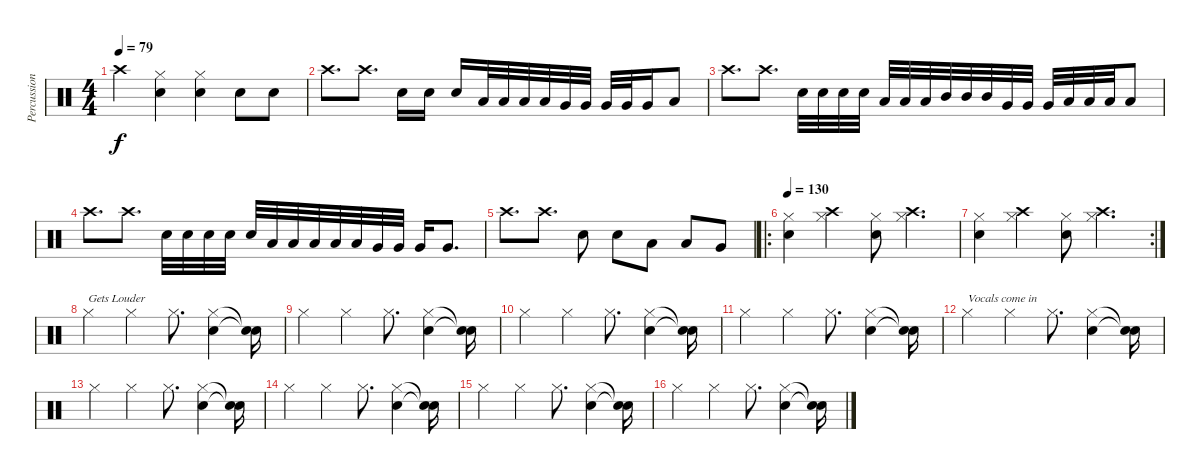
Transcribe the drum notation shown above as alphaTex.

\track ("Percussion" "Percussion") {instrument percussion}
\staff {score}
\articulation defaults
\ts (4 4)
\tempo 79
\clef neutral
\ks c "Crash high (hit)".4{dy f}
("Snare (hit) 2" "Hi-Hat (closed)").4 ("Snare (hit) 2" "Hi-Hat (closed)").4 "Snare (hit) 2".8 "Snare (hit) 2".8 |
"Crash high (hit)".8{d} "Crash high (hit)".8{d} "Snare (hit) 2".16 "Snare (hit) 2".16 "Snare (hit) 2".16 "Low Tom (hit)".32 "Low Tom (hit)".32 "Low Tom (hit)".32 "Low Tom (hit)".32 "Very Low Tom (hit)".32 "Very Low Tom (hit)".32 "Very Low Tom (hit)".32 "Very Low Tom (hit)".32 "Very Low Tom (hit)".16 "Low Floor Tom (hit)".8 |
"Crash high (hit)".8{d} "Crash high (hit)".8{d} "Snare (hit) 2".32 "Snare (hit) 2".32 "Snare (hit) 2".32 "Snare (hit) 2".32 "Low Tom (hit)".32 "Low Tom (hit)".32 "Low Tom (hit)".32 "Mid Tom (hit)".32 "Mid Tom (hit)".32 "Mid Tom (hit)".32 "Very Low Tom (hit)".32 "Very Low Tom (hit)".32 "Very Low Tom (hit)".32 "Low Tom (hit)".32 "Low Tom (hit)".32 "Low Floor Tom (hit)".32 "Low Floor Tom (hit)".8 |
"Crash high (hit)".8{d} "Crash high (hit)".8{d} "Snare (hit) 2".32 "Snare (hit) 2".32 "Snare (hit) 2".32 "Snare (hit) 2".32 "Snare (hit) 2".32 "Low Tom (hit)".32 "Low Tom (hit)".32 "Low Tom (hit)".32 "Low Tom (hit)".32 "Low Tom (hit)".32 "Very Low Tom (hit)".32 "Very Low Tom (hit)".32 "Very Low Tom (hit)".16 "Very Low Tom (hit)".8{d} |
"Crash high (hit)".8{d} "Crash high (hit)".8{d} "Snare (hit) 2".8 "Snare (hit) 2".8 "Low Tom (hit)".8 "Low Tom (hit)".8 "Very Low Tom (hit)".8 |
\ro
\tempo 130
("Snare (hit) 2" "Hi-Hat (closed)").4{volume 13} ("Crash high (hit)" "Hi-Hat (closed)").4 ("Snare (hit) 2" "Hi-Hat (closed)").8 ("Crash high (hit)" "Hi-Hat (closed)").4{d} |
\rc 2
("Snare (hit) 2" "Hi-Hat (closed)").4 ("Crash high (hit)" "Hi-Hat (closed)").4 ("Snare (hit) 2" "Hi-Hat (closed)").8 ("Crash high (hit)" "Hi-Hat (closed)").4{d} |
"Hi-Hat (closed)".4{txt "Gets Louder" volume 13} "Hi-Hat (closed)".4 "Hi-Hat (closed)".8{d} ("Hi-Hat (closed)" "Snare (hit) 2").4 ("Snare (hit)"{t} "Snare (hit)"{t}).16 |
"Hi-Hat (closed)".4 "Hi-Hat (closed)".4 "Hi-Hat (closed)".8{d} ("Hi-Hat (closed)" "Snare (hit) 2").4 ("Snare (hit)"{t} "Snare (hit)"{t}).16 |
"Hi-Hat (closed)".4 "Hi-Hat (closed)".4 "Hi-Hat (closed)".8{d} ("Hi-Hat (closed)" "Snare (hit) 2").4 ("Snare (hit)"{t} "Snare (hit)"{t}).16 |
"Hi-Hat (closed)".4 "Hi-Hat (closed)".4 "Hi-Hat (closed)".8{d} ("Hi-Hat (closed)" "Snare (hit) 2").4 ("Snare (hit)"{t} "Snare (hit)"{t}).16 |
"Hi-Hat (closed)".4{txt "Vocals come in"} "Hi-Hat (closed)".4 "Hi-Hat (closed)".8{d} ("Hi-Hat (closed)" "Snare (hit) 2").4 ("Snare (hit)"{t} "Snare (hit)"{t}).16 |
"Hi-Hat (closed)".4 "Hi-Hat (closed)".4 "Hi-Hat (closed)".8{d} ("Hi-Hat (closed)" "Snare (hit) 2").4 ("Snare (hit)"{t} "Snare (hit)"{t}).16 |
"Hi-Hat (closed)".4 "Hi-Hat (closed)".4 "Hi-Hat (closed)".8{d} ("Hi-Hat (closed)" "Snare (hit) 2").4 ("Snare (hit)"{t} "Snare (hit)"{t}).16 |
"Hi-Hat (closed)".4 "Hi-Hat (closed)".4 "Hi-Hat (closed)".8{d} ("Hi-Hat (closed)" "Snare (hit) 2").4 ("Snare (hit)"{t} "Snare (hit)"{t}).16 |
"Hi-Hat (closed)".4 "Hi-Hat (closed)".4 "Hi-Hat (closed)".8{d} ("Hi-Hat (closed)" "Snare (hit) 2").4 ("Snare (hit)"{t} "Snare (hit)"{t}).16
